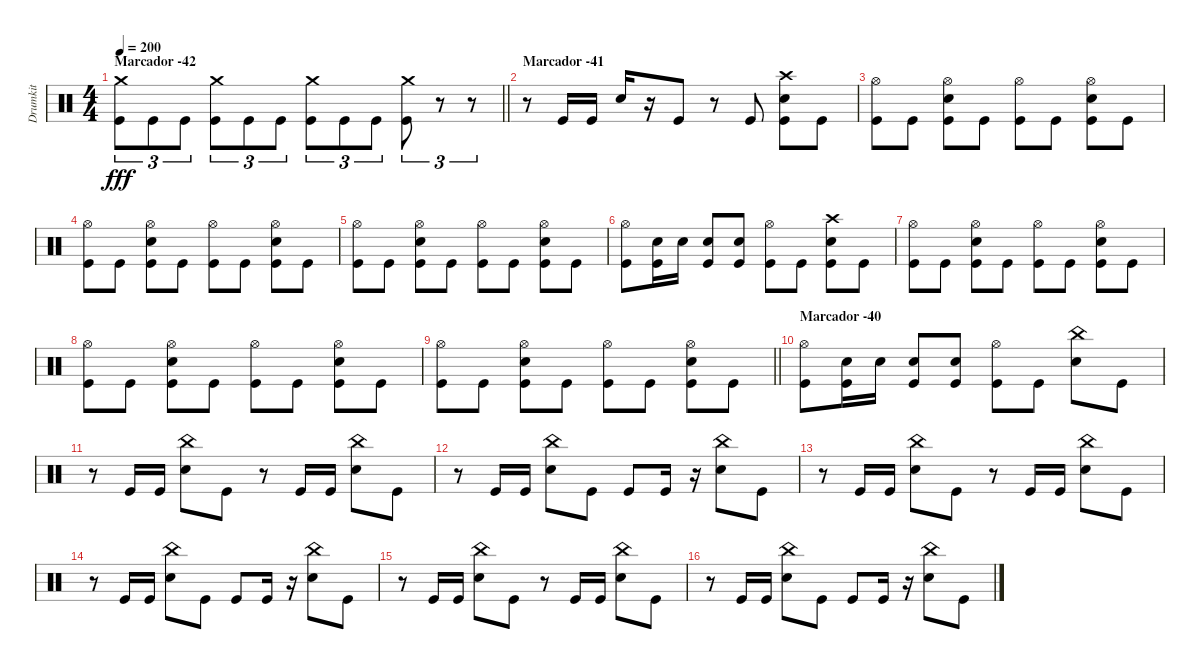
\track ("Drumkit" "Drumkit") {instrument percussion}
\staff {score}
\articulation defaults
\ts (4 4)
\section ("" "Marcador -42")
\tempo 200
\clef neutral
\barLineRight lightlight
\ks c
("Crash medium (hit)" "Kick (hit)").8{tu (3 2) dy fff} "Kick (hit)".8{tu (3 2)} "Kick (hit)".8{tu (3 2)} ("Crash medium (hit)" "Kick (hit)").8{tu (3 2)} "Kick (hit)".8{tu (3 2)} "Kick (hit)".8{tu (3 2)} ("Crash medium (hit)" "Kick (hit)").8{tu (3 2)} "Kick (hit)".8{tu (3 2)} "Kick (hit)".8{tu (3 2)} ("Crash medium (hit)" "Kick (hit)").8{tu (3 2)} r.8{tu (3 2)} r.8{tu (3 2)} |
\section ("" "Marcador -41")
r.8 "Kick (hit)".16 "Kick (hit)".16 "Snare (hit) 2".16 r.16 "Kick (hit)".8 r.8 "Kick (hit)".8 ("Crash high (hit)" "Snare (hit) 2" "Kick (hit)").8 "Kick (hit)".8 |
("Hi-Hat (open)" "Kick (hit)").8 "Kick (hit)".8 ("Hi-Hat (open)" "Snare (hit) 2" "Kick (hit)").8 "Kick (hit)".8 ("Hi-Hat (open)" "Kick (hit)").8 "Kick (hit)".8 ("Hi-Hat (open)" "Snare (hit) 2" "Kick (hit)").8 "Kick (hit)".8 |
("Hi-Hat (open)" "Kick (hit)").8 "Kick (hit)".8 ("Hi-Hat (open)" "Snare (hit) 2" "Kick (hit)").8 "Kick (hit)".8 ("Hi-Hat (open)" "Kick (hit)").8 "Kick (hit)".8 ("Hi-Hat (open)" "Snare (hit) 2" "Kick (hit)").8 "Kick (hit)".8 |
("Hi-Hat (open)" "Kick (hit)").8 "Kick (hit)".8 ("Hi-Hat (open)" "Snare (hit) 2" "Kick (hit)").8 "Kick (hit)".8 ("Hi-Hat (open)" "Kick (hit)").8 "Kick (hit)".8 ("Hi-Hat (open)" "Snare (hit) 2" "Kick (hit)").8 "Kick (hit)".8 |
("Hi-Hat (open)" "Kick (hit)").8 ("Snare (hit) 2" "Kick (hit)").16 "Snare (hit) 2".16 ("Snare (hit) 2" "Kick (hit)").8 ("Snare (hit) 2" "Kick (hit)").8 ("Hi-Hat (open)" "Kick (hit)").8 "Kick (hit)".8 ("Crash high (hit)" "Snare (hit) 2" "Kick (hit)").8 "Kick (hit)".8 |
("Hi-Hat (open)" "Kick (hit)").8 "Kick (hit)".8 ("Hi-Hat (open)" "Snare (hit) 2" "Kick (hit)").8 "Kick (hit)".8 ("Hi-Hat (open)" "Kick (hit)").8 "Kick (hit)".8 ("Hi-Hat (open)" "Snare (hit) 2" "Kick (hit)").8 "Kick (hit)".8 |
("Hi-Hat (open)" "Kick (hit)").8 "Kick (hit)".8 ("Hi-Hat (open)" "Snare (hit) 2" "Kick (hit)").8 "Kick (hit)".8 ("Hi-Hat (open)" "Kick (hit)").8 "Kick (hit)".8 ("Hi-Hat (open)" "Snare (hit) 2" "Kick (hit)").8 "Kick (hit)".8 |
\barLineRight lightlight
("Hi-Hat (open)" "Kick (hit)").8 "Kick (hit)".8 ("Hi-Hat (open)" "Snare (hit) 2" "Kick (hit)").8 "Kick (hit)".8 ("Hi-Hat (open)" "Kick (hit)").8 "Kick (hit)".8 ("Hi-Hat (open)" "Snare (hit) 2" "Kick (hit)").8 "Kick (hit)".8 |
\section ("" "Marcador -40")
("Hi-Hat (open)" "Kick (hit)").8 ("Snare (hit) 2" "Kick (hit)").16 "Snare (hit) 2".16 ("Snare (hit) 2" "Kick (hit)").8 ("Snare (hit) 2" "Kick (hit)").8 ("Hi-Hat (open)" "Kick (hit)").8 "Kick (hit)".8 ("China (hit)" "Snare (hit) 2").8 "Kick (hit)".8 |
r.8 "Kick (hit)".16 "Kick (hit)".16 ("China (hit)" "Snare (hit) 2").8 "Kick (hit)".8 r.8 "Kick (hit)".16 "Kick (hit)".16 ("China (hit)" "Snare (hit) 2").8 "Kick (hit)".8 |
r.8 "Kick (hit)".16 "Kick (hit)".16 ("China (hit)" "Snare (hit) 2").8 "Kick (hit)".8 "Kick (hit)".8 "Kick (hit)".16 r.16 ("China (hit)" "Snare (hit) 2").8 "Kick (hit)".8 |
r.8 "Kick (hit)".16 "Kick (hit)".16 ("China (hit)" "Snare (hit) 2").8 "Kick (hit)".8 r.8 "Kick (hit)".16 "Kick (hit)".16 ("China (hit)" "Snare (hit) 2").8 "Kick (hit)".8 |
r.8 "Kick (hit)".16 "Kick (hit)".16 ("China (hit)" "Snare (hit) 2").8 "Kick (hit)".8 "Kick (hit)".8 "Kick (hit)".16 r.16 ("China (hit)" "Snare (hit) 2").8 "Kick (hit)".8 |
r.8 "Kick (hit)".16 "Kick (hit)".16 ("China (hit)" "Snare (hit) 2").8 "Kick (hit)".8 r.8 "Kick (hit)".16 "Kick (hit)".16 ("China (hit)" "Snare (hit) 2").8 "Kick (hit)".8 |
r.8 "Kick (hit)".16 "Kick (hit)".16 ("China (hit)" "Snare (hit) 2").8 "Kick (hit)".8 "Kick (hit)".8 "Kick (hit)".16 r.16 ("China (hit)" "Snare (hit) 2").8 "Kick (hit)".8
